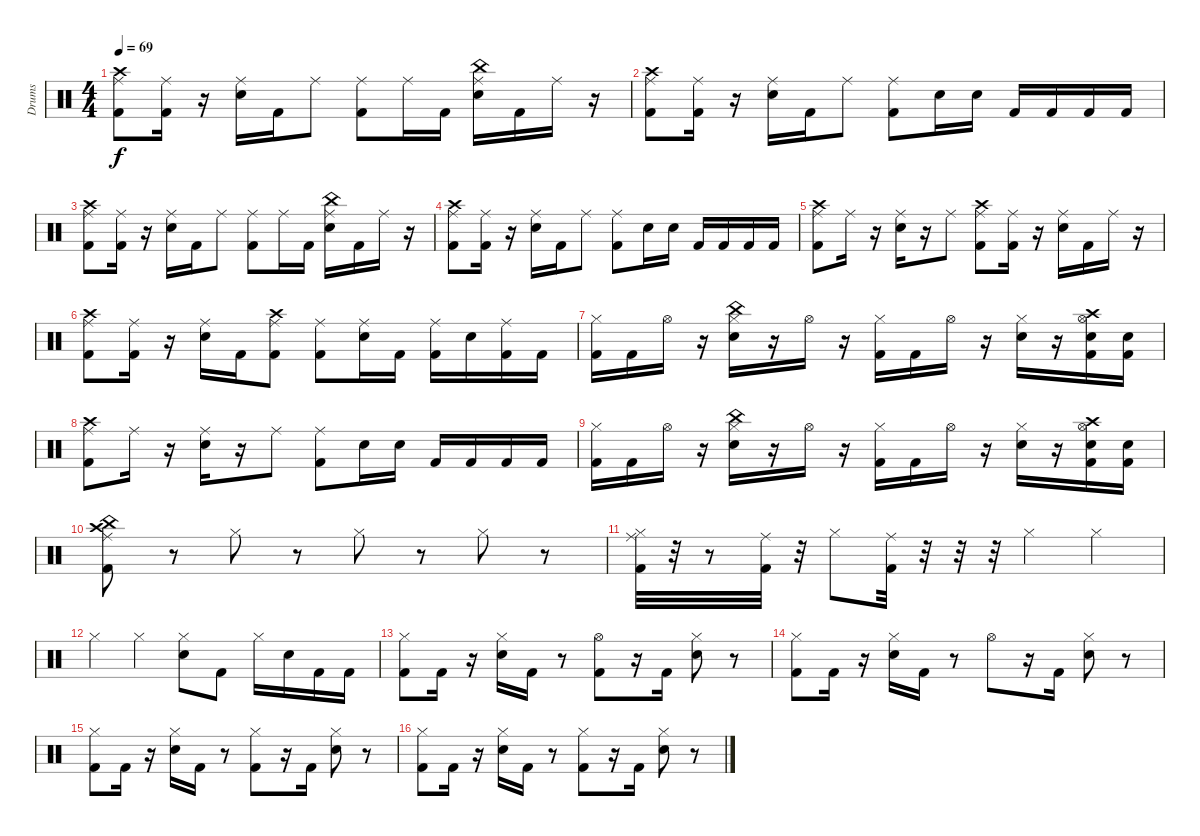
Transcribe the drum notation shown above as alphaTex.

\track ("Drums" "Drums") {instrument percussion}
\staff {score}
\articulation defaults
\ts (4 4)
\tempo 69
\clef neutral
\ks c
("Ride (middle)" "Kick (hit) 2" "Crash high (hit)").8{dy f} ("Ride (middle)" "Kick (hit) 2").16 r.16 ("Ride (middle)" "Snare (hit) 2").16 "Kick (hit) 2".16 "Ride (middle)".8 ("Ride (middle)" "Kick (hit) 2").8 "Ride (middle)".16 "Kick (hit) 2".16 ("Ride (middle)" "Snare (hit) 2" "China (hit)").16 "Kick (hit) 2".16 "Ride (middle)".16 r.16 |
("Ride (middle)" "Kick (hit) 2" "Crash high (hit)").8 ("Ride (middle)" "Kick (hit) 2").16 r.16 ("Ride (middle)" "Snare (hit) 2").16 "Kick (hit) 2".16 "Ride (middle)".8 ("Ride (middle)" "Kick (hit) 2").8 "Snare (hit) 2".16 "Snare (hit) 2".16 "Kick (hit) 2".16 "Kick (hit) 2".16 "Kick (hit) 2".16 "Kick (hit) 2".16 |
("Ride (middle)" "Kick (hit) 2" "Crash high (hit)").8 ("Ride (middle)" "Kick (hit) 2").16 r.16 ("Ride (middle)" "Snare (hit) 2").16 "Kick (hit) 2".16 "Ride (middle)".8 ("Ride (middle)" "Kick (hit) 2").8 "Ride (middle)".16 "Kick (hit) 2".16 ("Ride (middle)" "Snare (hit) 2" "China (hit)").16 "Kick (hit) 2".16 "Ride (middle)".16 r.16 |
("Ride (middle)" "Kick (hit) 2" "Crash high (hit)").8 ("Ride (middle)" "Kick (hit) 2").16 r.16 ("Ride (middle)" "Snare (hit) 2").16 "Kick (hit) 2".16 "Ride (middle)".8 ("Ride (middle)" "Kick (hit) 2").8 "Snare (hit) 2".16 "Snare (hit) 2".16 "Kick (hit) 2".16 "Kick (hit) 2".16 "Kick (hit) 2".16 "Kick (hit) 2".16 |
("Ride (middle)" "Kick (hit) 2" "Crash high (hit)").8 "Ride (middle)".16 r.16 ("Ride (middle)" "Snare (hit) 2").16 r.16 "Ride (middle)".8 ("Ride (middle)" "Kick (hit) 2" "Crash high (hit)").8 ("Ride (middle)" "Kick (hit) 2").16 r.16 ("Ride (middle)" "Snare (hit) 2").16 "Kick (hit) 2".16 "Ride (middle)".16 r.16 |
("Ride (middle)" "Kick (hit) 2" "Crash high (hit)").8 ("Ride (middle)" "Kick (hit) 2").16 r.16 ("Ride (middle)" "Snare (hit) 2").16 "Kick (hit) 2".16 ("Ride (middle)" "Kick (hit) 2" "Crash high (hit)").8 ("Ride (middle)" "Kick (hit) 2").8 ("Ride (middle)" "Snare (hit) 2").16 "Kick (hit) 2".16 ("Ride (middle)" "Kick (hit) 2").16 "Snare (hit) 2".16 ("Ride (middle)" "Kick (hit) 2").16 "Kick (hit) 2".16 |
("Hi-Hat (closed)" "Kick (hit) 2").16 "Kick (hit) 2".16 "Hi-Hat (open)".16 r.16 ("Hi-Hat (closed)" "Snare (hit) 2" "China (hit)").16 r.16 "Hi-Hat (open)".16 r.16 ("Hi-Hat (closed)" "Kick (hit) 2").16 "Kick (hit) 2".16 "Hi-Hat (open)".16 r.16 ("Hi-Hat (closed)" "Snare (hit) 2").16 r.16 ("Hi-Hat (open)" "Kick (hit) 2" "Snare (hit) 2" "Crash high (hit)").16 ("Kick (hit) 2" "Snare (hit) 2").16 |
("Ride (middle)" "Kick (hit) 2" "Crash high (hit)").8 "Ride (middle)".16 r.16 ("Ride (middle)" "Snare (hit) 2").16 r.16 "Ride (middle)".8 ("Ride (middle)" "Kick (hit) 2").8 "Snare (hit) 2".16 "Snare (hit) 2".16 "Kick (hit) 2".16 "Kick (hit) 2".16 "Kick (hit) 2".16 "Kick (hit) 2".16 |
("Hi-Hat (closed)" "Kick (hit) 2").16 "Kick (hit) 2".16 "Hi-Hat (open)".16 r.16 ("Hi-Hat (closed)" "Snare (hit) 2" "China (hit)").16 r.16 "Hi-Hat (open)".16 r.16 ("Hi-Hat (closed)" "Kick (hit) 2").16 "Kick (hit) 2".16 "Hi-Hat (open)".16 r.16 ("Hi-Hat (closed)" "Snare (hit) 2").16 r.16 ("Hi-Hat (open)" "Kick (hit) 2" "Snare (hit) 2" "Crash high (hit)").16 ("Kick (hit) 2" "Snare (hit) 2").16 |
("Ride (middle)" "Kick (hit) 2" "Crash high (hit)" "China (hit)").8 r.8 "Hi-Hat (closed)".8 r.8 "Hi-Hat (closed)".8 r.8 "Hi-Hat (closed)".8 r.8 |
("Hi-Hat (closed)" "Kick (hit) 2" "Ride (middle)").32 r.32 r.8 ("Kick (hit) 2" "Ride (middle)").32 r.32 "Hi-Hat (closed)".8 ("Kick (hit) 2" "Ride (middle)").32 r.32 r.32 r.32 "Hi-Hat (closed)".4 "Hi-Hat (closed)".4 |
"Hi-Hat (closed)".4 "Hi-Hat (closed)".4 ("Hi-Hat (closed)" "Snare (hit) 2").8 "Kick (hit) 2".8 "Hi-Hat (closed)".16 "Snare (hit) 2".16 "Kick (hit) 2".16 "Kick (hit) 2".16 |
("Hi-Hat (closed)" "Kick (hit) 2").8 "Kick (hit) 2".16 r.16 ("Hi-Hat (closed)" "Snare (hit) 2").16 "Kick (hit) 2".16 r.8 ("Hi-Hat (open)" "Kick (hit) 2").8 r.16 "Kick (hit) 2".16 ("Hi-Hat (closed)" "Snare (hit) 2").8 r.8 |
("Hi-Hat (closed)" "Kick (hit) 2").8 "Kick (hit) 2".16 r.16 ("Hi-Hat (closed)" "Snare (hit) 2").16 "Kick (hit) 2".16 r.8 "Hi-Hat (open)".8 r.16 "Kick (hit) 2".16 ("Hi-Hat (closed)" "Snare (hit) 2").8 r.8 |
("Hi-Hat (closed)" "Kick (hit) 2").8 "Kick (hit) 2".16 r.16 ("Hi-Hat (closed)" "Snare (hit) 2").16 "Kick (hit) 2".16 r.8 ("Hi-Hat (closed)" "Kick (hit) 2").8 r.16 "Kick (hit) 2".16 ("Hi-Hat (closed)" "Snare (hit) 2").8 r.8 |
("Hi-Hat (closed)" "Kick (hit) 2").8 "Kick (hit) 2".16 r.16 ("Hi-Hat (closed)" "Snare (hit) 2").16 "Kick (hit) 2".16 r.8 ("Hi-Hat (closed)" "Kick (hit) 2").8 r.16 "Kick (hit) 2".16 ("Hi-Hat (closed)" "Snare (hit) 2").8 r.8
